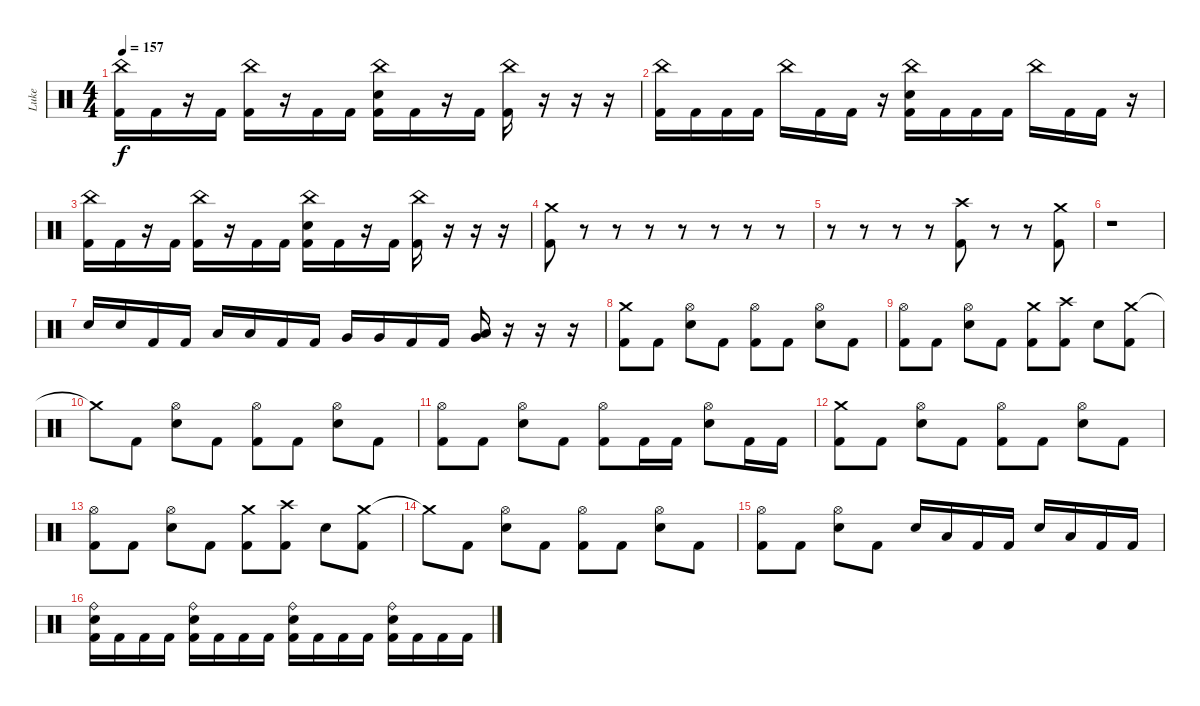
\track ("Luke" "Luke") {instrument percussion}
\staff {score}
\articulation defaults
\ts (4 4)
\tempo 157
\clef neutral
\ks c
("China (hit)" "Kick (hit) 2").16{dy f} "Kick (hit) 2".16 r.16 "Kick (hit) 2".16 ("China (hit)" "Kick (hit) 2").16 r.16 "Kick (hit) 2".16 "Kick (hit) 2".16 ("China (hit)" "Electric Snare (hit)" "Kick (hit) 2").16 "Kick (hit) 2".16 r.16 "Kick (hit) 2".16 ("China (hit)" "Kick (hit) 2").16 r.16 r.16 r.16 |
("China (hit)" "Kick (hit) 2").16 "Kick (hit) 2".16 "Kick (hit) 2".16 "Kick (hit) 2".16 "China (hit)".16 "Kick (hit) 2".16 "Kick (hit) 2".16 r.16 ("China (hit)" "Electric Snare (hit)" "Kick (hit) 2").16 "Kick (hit) 2".16 "Kick (hit) 2".16 "Kick (hit) 2".16 "China (hit)".16 "Kick (hit) 2".16 "Kick (hit) 2".16 r.16 |
("China (hit)" "Kick (hit) 2").16 "Kick (hit) 2".16 r.16 "Kick (hit) 2".16 ("China (hit)" "Kick (hit) 2").16 r.16 "Kick (hit) 2".16 "Kick (hit) 2".16 ("China (hit)" "Electric Snare (hit)" "Kick (hit) 2").16 "Kick (hit) 2".16 r.16 "Kick (hit) 2".16 ("China (hit)" "Kick (hit) 2").16 r.16 r.16 r.16 |
("Crash medium (hit)" "Kick (hit) 2").8 r.8 r.8 r.8 r.8 r.8 r.8 r.8 |
r.8 r.8 r.8 r.8 ("Crash high (hit)" "Kick (hit) 2").8 r.8 r.8 ("Crash medium (hit)" "Kick (hit) 2").8 |
r.1 |
"Electric Snare (hit)".16 "Electric Snare (hit)".16 "Kick (hit) 2".16 "Kick (hit) 2".16 "Low Tom (hit)".16 "Low Tom (hit)".16 "Kick (hit) 2".16 "Kick (hit) 2".16 "Very Low Tom (hit)".16 "Very Low Tom (hit)".16 "Kick (hit) 2".16 "Kick (hit) 2".16 ("Very Low Tom (hit)" "Low Floor Tom (hit)").16 r.16 r.16 r.16 |
("Crash medium (hit)" "Kick (hit) 2").8 "Kick (hit) 2".8 ("Hi-Hat (open)" "Electric Snare (hit)").8 "Kick (hit) 2".8 ("Hi-Hat (open)" "Kick (hit) 2").8 "Kick (hit) 2".8 ("Hi-Hat (open)" "Electric Snare (hit)").8 "Kick (hit) 2".8 |
("Hi-Hat (open)" "Kick (hit) 2").8 "Kick (hit) 2".8 ("Hi-Hat (open)" "Electric Snare (hit)").8 "Kick (hit) 2".8 ("Crash medium (hit)" "Kick (hit) 2").8 ("Crash high (hit)" "Kick (hit) 2").8 "Electric Snare (hit)".8 ("Crash medium (hit)" "Kick (hit) 2").8 |
"Crash medium (hit)"{t}.8 "Kick (hit) 2".8 ("Hi-Hat (open)" "Electric Snare (hit)").8 "Kick (hit) 2".8 ("Hi-Hat (open)" "Kick (hit) 2").8 "Kick (hit) 2".8 ("Hi-Hat (open)" "Electric Snare (hit)").8 "Kick (hit) 2".8 |
("Hi-Hat (open)" "Kick (hit) 2").8 "Kick (hit) 2".8 ("Hi-Hat (open)" "Electric Snare (hit)").8 "Kick (hit) 2".8 ("Hi-Hat (open)" "Kick (hit) 2").8 "Kick (hit) 2".16 "Kick (hit) 2".16 ("Hi-Hat (open)" "Electric Snare (hit)").8 "Kick (hit) 2".16 "Kick (hit) 2".16 |
("Crash medium (hit)" "Kick (hit) 2").8 "Kick (hit) 2".8 ("Hi-Hat (open)" "Electric Snare (hit)").8 "Kick (hit) 2".8 ("Hi-Hat (open)" "Kick (hit) 2").8 "Kick (hit) 2".8 ("Hi-Hat (open)" "Electric Snare (hit)").8 "Kick (hit) 2".8 |
("Hi-Hat (open)" "Kick (hit) 2").8 "Kick (hit) 2".8 ("Hi-Hat (open)" "Electric Snare (hit)").8 "Kick (hit) 2".8 ("Crash medium (hit)" "Kick (hit) 2").8 ("Crash high (hit)" "Kick (hit) 2").8 "Electric Snare (hit)".8 ("Crash medium (hit)" "Kick (hit) 2").8 |
"Crash medium (hit)"{t}.8 "Kick (hit) 2".8 ("Hi-Hat (open)" "Electric Snare (hit)").8 "Kick (hit) 2".8 ("Hi-Hat (open)" "Kick (hit) 2").8 "Kick (hit) 2".8 ("Hi-Hat (open)" "Electric Snare (hit)").8 "Kick (hit) 2".8 |
("Hi-Hat (open)" "Kick (hit) 2").8 "Kick (hit) 2".8 ("Hi-Hat (open)" "Electric Snare (hit)").8 "Kick (hit) 2".8 "Electric Snare (hit)".16 "Low Tom (hit)".16 "Kick (hit) 2".16 "Kick (hit) 2".16 "Electric Snare (hit)".16 "Low Tom (hit)".16 "Kick (hit) 2".16 "Kick (hit) 2".16 |
("Ride (bell)" "Electric Snare (hit)" "Kick (hit) 2").16 "Kick (hit) 2".16 "Kick (hit) 2".16 "Kick (hit) 2".16 ("Ride (bell)" "Electric Snare (hit)" "Kick (hit) 2").16 "Kick (hit) 2".16 "Kick (hit) 2".16 "Kick (hit) 2".16 ("Ride (bell)" "Electric Snare (hit)" "Kick (hit) 2").16 "Kick (hit) 2".16 "Kick (hit) 2".16 "Kick (hit) 2".16 ("Ride (bell)" "Electric Snare (hit)" "Kick (hit) 2").16 "Kick (hit) 2".16 "Kick (hit) 2".16 "Kick (hit) 2".16
